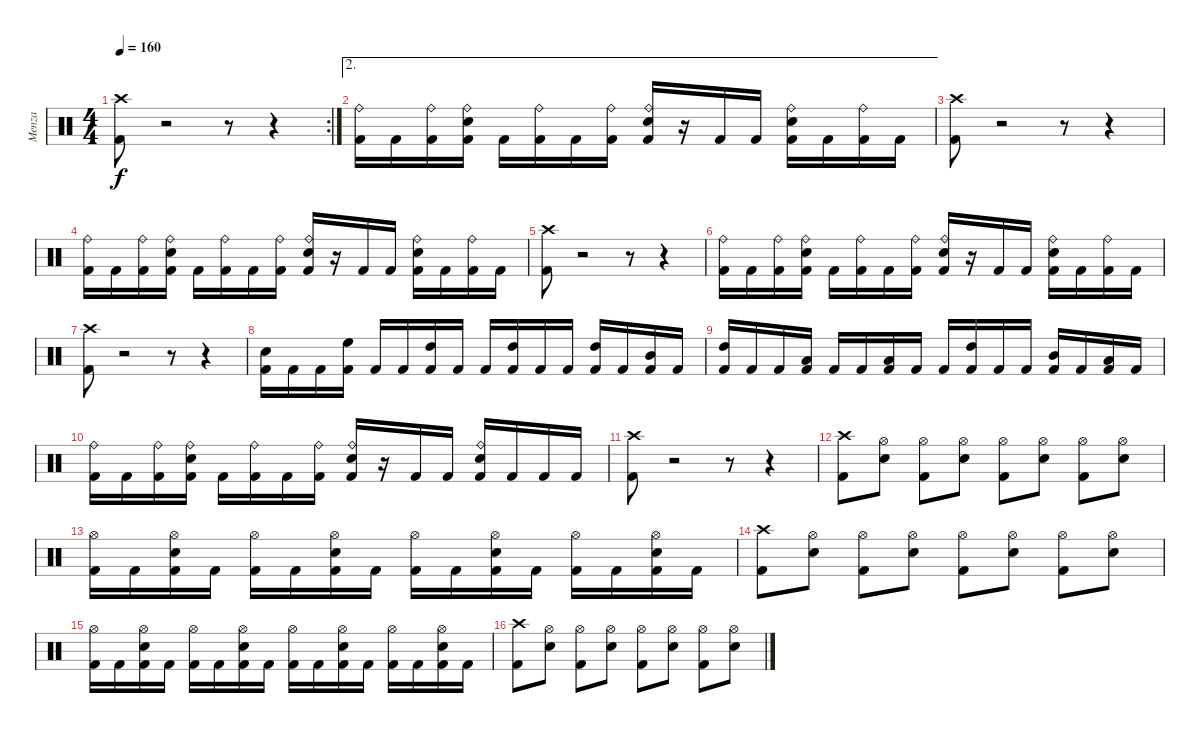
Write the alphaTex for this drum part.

\track ("Menza" "Menza") {instrument percussion}
\staff {score}
\articulation defaults
\rc 2
\ts (4 4)
\tempo 160
\clef neutral
\ks c
("Crash high (hit)" "Kick (hit) 2").8{dy f} r.2 r.8 r.4 |
\ae 2
("Ride (bell)" "Kick (hit) 2").16 "Kick (hit) 2".16 ("Ride (bell)" "Kick (hit) 2").16 ("Ride (bell)" "Snare (hit) 2" "Kick (hit) 2").16 "Kick (hit) 2".16 ("Ride (bell)" "Kick (hit) 2").16 "Kick (hit) 2".16 ("Ride (bell)" "Kick (hit) 2").16 ("Ride (bell)" "Snare (hit) 2" "Kick (hit) 2").16 r.16 "Kick (hit) 2".16 "Kick (hit) 2".16 ("Ride (bell)" "Snare (hit) 2" "Kick (hit) 2").16 "Kick (hit) 2".16 ("Ride (bell)" "Kick (hit) 2").16 "Kick (hit) 2".16 |
("Crash high (hit)" "Kick (hit) 2").8 r.2 r.8 r.4 |
("Ride (bell)" "Kick (hit) 2").16 "Kick (hit) 2".16 ("Ride (bell)" "Kick (hit) 2").16 ("Ride (bell)" "Snare (hit) 2" "Kick (hit) 2").16 "Kick (hit) 2".16 ("Ride (bell)" "Kick (hit) 2").16 "Kick (hit) 2".16 ("Ride (bell)" "Kick (hit) 2").16 ("Ride (bell)" "Snare (hit) 2" "Kick (hit) 2").16 r.16 "Kick (hit) 2".16 "Kick (hit) 2".16 ("Ride (bell)" "Snare (hit) 2" "Kick (hit) 2").16 "Kick (hit) 2".16 ("Ride (bell)" "Kick (hit) 2").16 "Kick (hit) 2".16 |
("Crash high (hit)" "Kick (hit) 2").8 r.2 r.8 r.4 |
("Ride (bell)" "Kick (hit) 2").16 "Kick (hit) 2".16 ("Ride (bell)" "Kick (hit) 2").16 ("Ride (bell)" "Snare (hit) 2" "Kick (hit) 2").16 "Kick (hit) 2".16 ("Ride (bell)" "Kick (hit) 2").16 "Kick (hit) 2".16 ("Ride (bell)" "Kick (hit) 2").16 ("Ride (bell)" "Snare (hit) 2" "Kick (hit) 2").16 r.16 "Kick (hit) 2".16 "Kick (hit) 2".16 ("Ride (bell)" "Snare (hit) 2" "Kick (hit) 2").16 "Kick (hit) 2".16 ("Ride (bell)" "Kick (hit) 2").16 "Kick (hit) 2".16 |
("Crash high (hit)" "Kick (hit) 2").8 r.2 r.8 r.4 |
("Snare (hit) 2" "Kick (hit) 2").16 "Kick (hit) 2".16 "Kick (hit) 2".16 ("High Floor Tom (hit)" "Kick (hit) 2").16 "Kick (hit) 2".16 "Kick (hit) 2".16 ("High Tom (hit)" "Kick (hit) 2").16 "Kick (hit) 2".16 "Kick (hit) 2".16 ("High Tom (hit)" "Kick (hit) 2").16 "Kick (hit) 2".16 "Kick (hit) 2".16 ("High Tom (hit)" "Kick (hit) 2").16 "Kick (hit) 2".16 ("Mid Tom (hit)" "Kick (hit) 2").16 "Kick (hit) 2".16 |
("High Tom (hit)" "Kick (hit) 2").16 "Kick (hit) 2".16 "Kick (hit) 2".16 ("Low Tom (hit)" "Kick (hit) 2").16 "Kick (hit) 2".16 "Kick (hit) 2".16 ("Low Tom (hit)" "Kick (hit) 2").16 "Kick (hit) 2".16 "Kick (hit) 2".16 ("High Tom (hit)" "Kick (hit) 2").16 "Kick (hit) 2".16 "Kick (hit) 2".16 ("Mid Tom (hit)" "Kick (hit) 2").16 "Kick (hit) 2".16 ("Low Tom (hit)" "Kick (hit) 2").16 "Kick (hit) 2".16 |
("Ride (bell)" "Kick (hit) 2").16 "Kick (hit) 2".16 ("Ride (bell)" "Kick (hit) 2").16 ("Ride (bell)" "Snare (hit) 2" "Kick (hit) 2").16 "Kick (hit) 2".16 ("Ride (bell)" "Kick (hit) 2").16 "Kick (hit) 2".16 ("Ride (bell)" "Kick (hit) 2").16 ("Ride (bell)" "Snare (hit) 2" "Kick (hit) 2").16 r.16 "Kick (hit) 2".16 "Kick (hit) 2".16 ("Ride (bell)" "Snare (hit) 2" "Kick (hit) 2").16 "Kick (hit) 2".16 "Kick (hit) 2".16 "Kick (hit) 2".16 |
("Crash high (hit)" "Kick (hit) 2").8 r.2 r.8 r.4 |
("Crash high (hit)" "Kick (hit) 2").8 ("Hi-Hat (open)" "Snare (hit) 2").8 ("Hi-Hat (open)" "Kick (hit) 2").8 ("Hi-Hat (open)" "Snare (hit) 2").8 ("Hi-Hat (open)" "Kick (hit) 2").8 ("Hi-Hat (open)" "Snare (hit) 2").8 ("Hi-Hat (open)" "Kick (hit) 2").8 ("Hi-Hat (open)" "Snare (hit) 2").8 |
("Hi-Hat (open)" "Kick (hit) 2").16 "Kick (hit) 2".16 ("Hi-Hat (open)" "Snare (hit) 2" "Kick (hit) 2").16 "Kick (hit) 2".16 ("Hi-Hat (open)" "Kick (hit) 2").16 "Kick (hit) 2".16 ("Hi-Hat (open)" "Snare (hit) 2" "Kick (hit) 2").16 "Kick (hit) 2".16 ("Hi-Hat (open)" "Kick (hit) 2").16 "Kick (hit) 2".16 ("Hi-Hat (open)" "Snare (hit) 2" "Kick (hit) 2").16 "Kick (hit) 2".16 ("Hi-Hat (open)" "Kick (hit) 2").16 "Kick (hit) 2".16 ("Hi-Hat (open)" "Snare (hit) 2" "Kick (hit) 2").16 "Kick (hit) 2".16 |
("Crash high (hit)" "Kick (hit) 2").8 ("Hi-Hat (open)" "Snare (hit) 2").8 ("Hi-Hat (open)" "Kick (hit) 2").8 ("Hi-Hat (open)" "Snare (hit) 2").8 ("Hi-Hat (open)" "Kick (hit) 2").8 ("Hi-Hat (open)" "Snare (hit) 2").8 ("Hi-Hat (open)" "Kick (hit) 2").8 ("Hi-Hat (open)" "Snare (hit) 2").8 |
("Hi-Hat (open)" "Kick (hit) 2").16 "Kick (hit) 2".16 ("Hi-Hat (open)" "Snare (hit) 2" "Kick (hit) 2").16 "Kick (hit) 2".16 ("Hi-Hat (open)" "Kick (hit) 2").16 "Kick (hit) 2".16 ("Hi-Hat (open)" "Snare (hit) 2" "Kick (hit) 2").16 "Kick (hit) 2".16 ("Hi-Hat (open)" "Kick (hit) 2").16 "Kick (hit) 2".16 ("Hi-Hat (open)" "Snare (hit) 2" "Kick (hit) 2").16 "Kick (hit) 2".16 ("Hi-Hat (open)" "Kick (hit) 2").16 "Kick (hit) 2".16 ("Hi-Hat (open)" "Snare (hit) 2" "Kick (hit) 2").16 "Kick (hit) 2".16 |
("Crash high (hit)" "Kick (hit) 2").8 ("Hi-Hat (open)" "Snare (hit) 2").8 ("Hi-Hat (open)" "Kick (hit) 2").8 ("Hi-Hat (open)" "Snare (hit) 2").8 ("Hi-Hat (open)" "Kick (hit) 2").8 ("Hi-Hat (open)" "Snare (hit) 2").8 ("Hi-Hat (open)" "Kick (hit) 2").8 ("Hi-Hat (open)" "Snare (hit) 2").8
